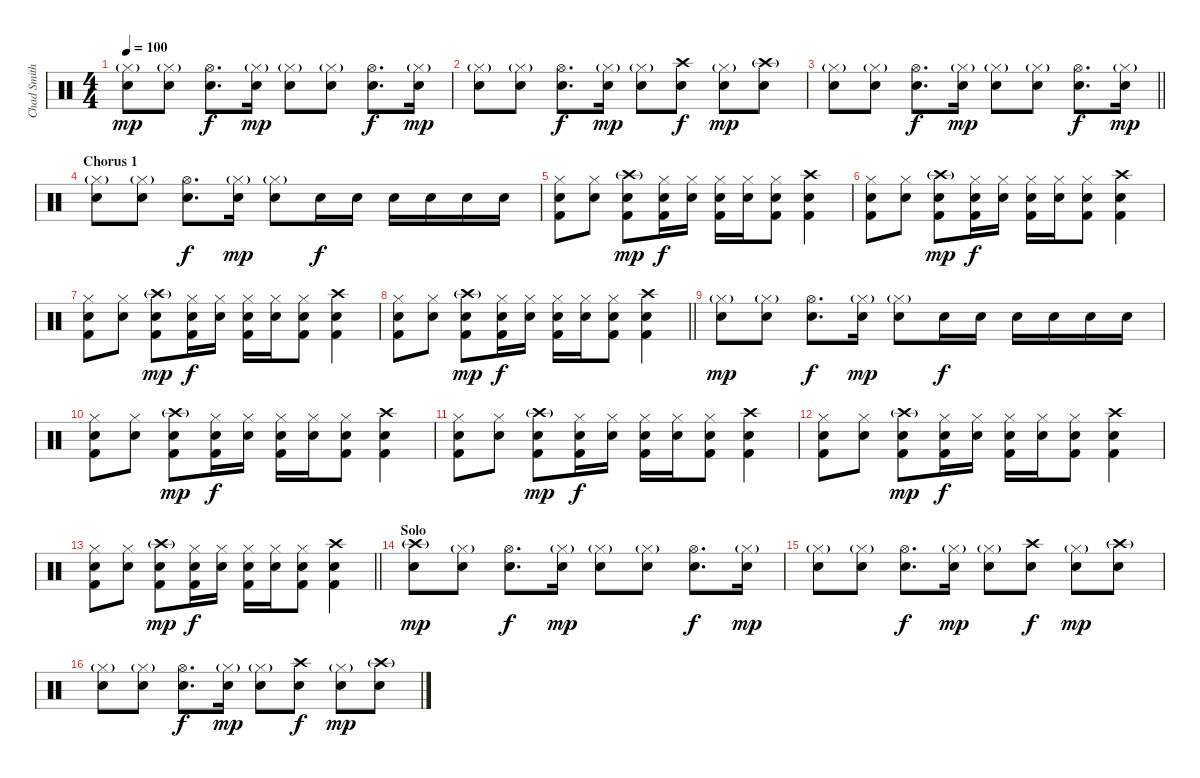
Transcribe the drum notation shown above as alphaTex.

\track ("Chad Smith - Drums" "Chad Smith") {instrument percussion}
\staff {score}
\articulation defaults
\ts (4 4)
\tempo 100
\clef neutral
\ks c
("Hi-Hat (closed)"{g} "Snare (hit) 2").8{dy mp} ("Hi-Hat (closed)"{g} "Snare (hit) 2").8 ("Hi-Hat (open)" "Snare (hit) 2").8{d dy f} ("Hi-Hat (closed)"{g} "Snare (hit) 2").16{dy mp} ("Hi-Hat (closed)"{g} "Snare (hit) 2").8 ("Hi-Hat (closed)"{g} "Snare (hit) 2").8 ("Hi-Hat (open)" "Snare (hit) 2").8{d dy f} ("Hi-Hat (closed)"{g} "Snare (hit) 2").16{dy mp} |
("Hi-Hat (closed)"{g} "Snare (hit) 2").8 ("Hi-Hat (closed)"{g} "Snare (hit) 2").8 ("Hi-Hat (open)" "Snare (hit) 2").8{d dy f} ("Hi-Hat (closed)"{g} "Snare (hit) 2").16{dy mp} ("Hi-Hat (closed)"{g} "Snare (hit) 2").8 ("Crash high (hit)" "Snare (hit) 2").8{dy f} ("Hi-Hat (closed)"{g} "Snare (hit) 2").8{dy mp} ("Crash high (hit)"{g} "Snare (hit) 2").8 |
\barLineRight lightlight
("Hi-Hat (closed)"{g} "Snare (hit) 2").8 ("Hi-Hat (closed)"{g} "Snare (hit) 2").8 ("Hi-Hat (open)" "Snare (hit) 2").8{d dy f} ("Hi-Hat (closed)"{g} "Snare (hit) 2").16{dy mp} ("Hi-Hat (closed)"{g} "Snare (hit) 2").8 ("Hi-Hat (closed)"{g} "Snare (hit) 2").8 ("Hi-Hat (open)" "Snare (hit) 2").8{d dy f} ("Hi-Hat (closed)"{g} "Snare (hit) 2").16{dy mp} |
\section ("" "Chorus 1")
("Hi-Hat (closed)"{g} "Snare (hit) 2").8 ("Hi-Hat (closed)"{g} "Snare (hit) 2").8 ("Hi-Hat (open)" "Snare (hit) 2").8{d dy f} ("Hi-Hat (closed)"{g} "Snare (hit) 2").16{dy mp} ("Hi-Hat (closed)"{g} "Snare (hit) 2").8 "Electric Snare (hit)".16{dy f} "Electric Snare (hit)".16 "Electric Snare (hit)".16 "Electric Snare (hit)".16 "Electric Snare (hit)".16 "Electric Snare (hit)".16 |
("Hi-Hat (closed)" "Electric Snare (hit)" "Kick (hit) 2").8 ("Hi-Hat (closed)" "Electric Snare (hit)").8 ("Crash high (hit)"{g} "Electric Snare (hit)" "Kick (hit) 2").8{dy mp} ("Hi-Hat (closed)" "Electric Snare (hit)" "Kick (hit) 2").16{dy f} ("Hi-Hat (closed)" "Electric Snare (hit)").16 ("Hi-Hat (closed)" "Electric Snare (hit)" "Kick (hit) 2").16 ("Hi-Hat (closed)" "Electric Snare (hit)").16 ("Hi-Hat (closed)" "Electric Snare (hit)" "Kick (hit) 2").8 ("Crash high (hit)" "Electric Snare (hit)" "Kick (hit) 2").4 |
("Hi-Hat (closed)" "Electric Snare (hit)" "Kick (hit) 2").8 ("Hi-Hat (closed)" "Electric Snare (hit)").8 ("Crash high (hit)"{g} "Electric Snare (hit)" "Kick (hit) 2").8{dy mp} ("Hi-Hat (closed)" "Electric Snare (hit)" "Kick (hit) 2").16{dy f} ("Hi-Hat (closed)" "Electric Snare (hit)").16 ("Hi-Hat (closed)" "Electric Snare (hit)" "Kick (hit) 2").16 ("Hi-Hat (closed)" "Electric Snare (hit)").16 ("Hi-Hat (closed)" "Electric Snare (hit)" "Kick (hit) 2").8 ("Crash high (hit)" "Electric Snare (hit)" "Kick (hit) 2").4 |
("Hi-Hat (closed)" "Electric Snare (hit)" "Kick (hit) 2").8 ("Hi-Hat (closed)" "Electric Snare (hit)").8 ("Crash high (hit)"{g} "Electric Snare (hit)" "Kick (hit) 2").8{dy mp} ("Hi-Hat (closed)" "Electric Snare (hit)" "Kick (hit) 2").16{dy f} ("Hi-Hat (closed)" "Electric Snare (hit)").16 ("Hi-Hat (closed)" "Electric Snare (hit)" "Kick (hit) 2").16 ("Hi-Hat (closed)" "Electric Snare (hit)").16 ("Hi-Hat (closed)" "Electric Snare (hit)" "Kick (hit) 2").8 ("Crash high (hit)" "Electric Snare (hit)" "Kick (hit) 2").4 |
\barLineRight lightlight
("Hi-Hat (closed)" "Electric Snare (hit)" "Kick (hit) 2").8 ("Hi-Hat (closed)" "Electric Snare (hit)").8 ("Crash high (hit)"{g} "Electric Snare (hit)" "Kick (hit) 2").8{dy mp} ("Hi-Hat (closed)" "Electric Snare (hit)" "Kick (hit) 2").16{dy f} ("Hi-Hat (closed)" "Electric Snare (hit)").16 ("Hi-Hat (closed)" "Electric Snare (hit)" "Kick (hit) 2").16 ("Hi-Hat (closed)" "Electric Snare (hit)").16 ("Hi-Hat (closed)" "Electric Snare (hit)" "Kick (hit) 2").8 ("Crash high (hit)" "Electric Snare (hit)" "Kick (hit) 2").4 |
("Hi-Hat (closed)"{g} "Snare (hit) 2").8{dy mp} ("Hi-Hat (closed)"{g} "Snare (hit) 2").8 ("Hi-Hat (open)" "Snare (hit) 2").8{d dy f} ("Hi-Hat (closed)"{g} "Snare (hit) 2").16{dy mp} ("Hi-Hat (closed)"{g} "Snare (hit) 2").8 "Electric Snare (hit)".16{dy f} "Electric Snare (hit)".16 "Electric Snare (hit)".16 "Electric Snare (hit)".16 "Electric Snare (hit)".16 "Electric Snare (hit)".16 |
("Hi-Hat (closed)" "Electric Snare (hit)" "Kick (hit) 2").8 ("Hi-Hat (closed)" "Electric Snare (hit)").8 ("Crash high (hit)"{g} "Electric Snare (hit)" "Kick (hit) 2").8{dy mp} ("Hi-Hat (closed)" "Electric Snare (hit)" "Kick (hit) 2").16{dy f} ("Hi-Hat (closed)" "Electric Snare (hit)").16 ("Hi-Hat (closed)" "Electric Snare (hit)" "Kick (hit) 2").16 ("Hi-Hat (closed)" "Electric Snare (hit)").16 ("Hi-Hat (closed)" "Electric Snare (hit)" "Kick (hit) 2").8 ("Crash high (hit)" "Electric Snare (hit)" "Kick (hit) 2").4 |
("Hi-Hat (closed)" "Electric Snare (hit)" "Kick (hit) 2").8 ("Hi-Hat (closed)" "Electric Snare (hit)").8 ("Crash high (hit)"{g} "Electric Snare (hit)" "Kick (hit) 2").8{dy mp} ("Hi-Hat (closed)" "Electric Snare (hit)" "Kick (hit) 2").16{dy f} ("Hi-Hat (closed)" "Electric Snare (hit)").16 ("Hi-Hat (closed)" "Electric Snare (hit)" "Kick (hit) 2").16 ("Hi-Hat (closed)" "Electric Snare (hit)").16 ("Hi-Hat (closed)" "Electric Snare (hit)" "Kick (hit) 2").8 ("Crash high (hit)" "Electric Snare (hit)" "Kick (hit) 2").4 |
("Hi-Hat (closed)" "Electric Snare (hit)" "Kick (hit) 2").8 ("Hi-Hat (closed)" "Electric Snare (hit)").8 ("Crash high (hit)"{g} "Electric Snare (hit)" "Kick (hit) 2").8{dy mp} ("Hi-Hat (closed)" "Electric Snare (hit)" "Kick (hit) 2").16{dy f} ("Hi-Hat (closed)" "Electric Snare (hit)").16 ("Hi-Hat (closed)" "Electric Snare (hit)" "Kick (hit) 2").16 ("Hi-Hat (closed)" "Electric Snare (hit)").16 ("Hi-Hat (closed)" "Electric Snare (hit)" "Kick (hit) 2").8 ("Crash high (hit)" "Electric Snare (hit)" "Kick (hit) 2").4 |
\barLineRight lightlight
("Hi-Hat (closed)" "Electric Snare (hit)" "Kick (hit) 2").8 ("Hi-Hat (closed)" "Electric Snare (hit)").8 ("Crash high (hit)"{g} "Electric Snare (hit)" "Kick (hit) 2").8{dy mp} ("Hi-Hat (closed)" "Electric Snare (hit)" "Kick (hit) 2").16{dy f} ("Hi-Hat (closed)" "Electric Snare (hit)").16 ("Hi-Hat (closed)" "Electric Snare (hit)" "Kick (hit) 2").16 ("Hi-Hat (closed)" "Electric Snare (hit)").16 ("Hi-Hat (closed)" "Electric Snare (hit)" "Kick (hit) 2").8 ("Crash high (hit)" "Electric Snare (hit)" "Kick (hit) 2").4 |
\section ("" "Solo")
("Crash high (hit)"{g} "Snare (hit) 2").8{dy mp} ("Hi-Hat (closed)"{g} "Snare (hit) 2").8 ("Hi-Hat (open)" "Snare (hit) 2").8{d dy f} ("Hi-Hat (closed)"{g} "Snare (hit) 2").16{dy mp} ("Hi-Hat (closed)"{g} "Snare (hit) 2").8 ("Hi-Hat (closed)"{g} "Snare (hit) 2").8 ("Hi-Hat (open)" "Snare (hit) 2").8{d dy f} ("Hi-Hat (closed)"{g} "Snare (hit) 2").16{dy mp} |
("Hi-Hat (closed)"{g} "Snare (hit) 2").8 ("Hi-Hat (closed)"{g} "Snare (hit) 2").8 ("Hi-Hat (open)" "Snare (hit) 2").8{d dy f} ("Hi-Hat (closed)"{g} "Snare (hit) 2").16{dy mp} ("Hi-Hat (closed)"{g} "Snare (hit) 2").8 ("Crash high (hit)" "Snare (hit) 2").8{dy f} ("Hi-Hat (closed)"{g} "Snare (hit) 2").8{dy mp} ("Crash high (hit)"{g} "Snare (hit) 2").8 |
("Hi-Hat (closed)"{g} "Snare (hit) 2").8 ("Hi-Hat (closed)"{g} "Snare (hit) 2").8 ("Hi-Hat (open)" "Snare (hit) 2").8{d dy f} ("Hi-Hat (closed)"{g} "Snare (hit) 2").16{dy mp} ("Hi-Hat (closed)"{g} "Snare (hit) 2").8 ("Crash high (hit)" "Snare (hit) 2").8{dy f} ("Hi-Hat (closed)"{g} "Snare (hit) 2").8{dy mp} ("Crash high (hit)"{g} "Snare (hit) 2").8
